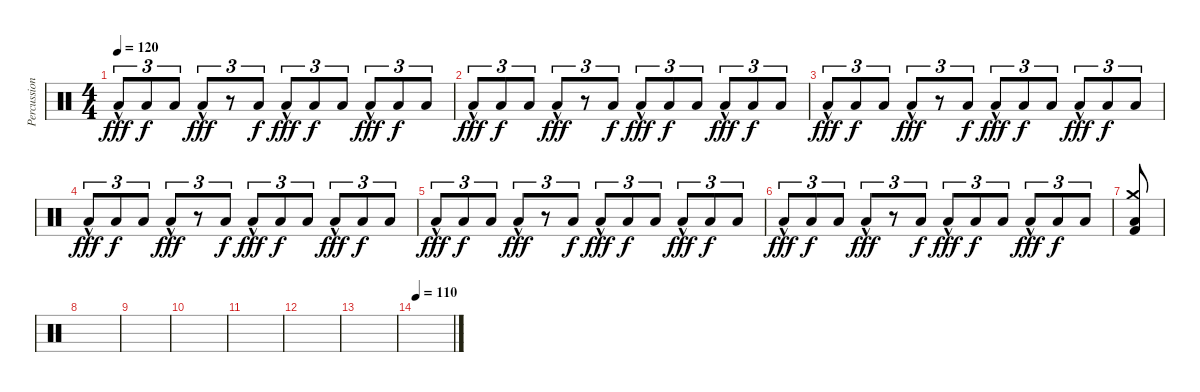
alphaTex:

\track ("Percussion" "Percussion") {instrument percussion}
\staff {score}
\articulation defaults
\ts (4 4)
\tempo 120
\clef neutral
\ks c "Low Floor Tom (hit)"{hac}.8{tu (3 2) dy fff} "Low Floor Tom (hit)".8{tu (3 2) dy f} "Low Floor Tom (hit)".8{tu (3 2)} "Low Floor Tom (hit)"{hac}.8{tu (3 2) dy fff}
r.8{tu (3 2)} "Low Floor Tom (hit)".8{tu (3 2) dy f} "Low Floor Tom (hit)"{hac}.8{tu (3 2) dy fff} "Low Floor Tom (hit)".8{tu (3 2) dy f} "Low Floor Tom (hit)".8{tu (3 2)} "Low Floor Tom (hit)"{hac}.8{tu (3 2) dy fff} "Low Floor Tom (hit)".8{tu (3 2) dy f} "Low Floor Tom (hit)".8{tu (3 2)} |
"Low Floor Tom (hit)"{hac}.8{tu (3 2) dy fff} "Low Floor Tom (hit)".8{tu (3 2) dy f} "Low Floor Tom (hit)".8{tu (3 2)} "Low Floor Tom (hit)"{hac}.8{tu (3 2) dy fff} r.8{tu (3 2)} "Low Floor Tom (hit)".8{tu (3 2) dy f} "Low Floor Tom (hit)"{hac}.8{tu (3 2) dy fff} "Low Floor Tom (hit)".8{tu (3 2) dy f} "Low Floor Tom (hit)".8{tu (3 2)} "Low Floor Tom (hit)"{hac}.8{tu (3 2) dy fff} "Low Floor Tom (hit)".8{tu (3 2) dy f} "Low Floor Tom (hit)".8{tu (3 2)} |
"Low Floor Tom (hit)"{hac}.8{tu (3 2) dy fff} "Low Floor Tom (hit)".8{tu (3 2) dy f} "Low Floor Tom (hit)".8{tu (3 2)} "Low Floor Tom (hit)"{hac}.8{tu (3 2) dy fff} r.8{tu (3 2)} "Low Floor Tom (hit)".8{tu (3 2) dy f} "Low Floor Tom (hit)"{hac}.8{tu (3 2) dy fff} "Low Floor Tom (hit)".8{tu (3 2) dy f} "Low Floor Tom (hit)".8{tu (3 2)} "Low Floor Tom (hit)"{hac}.8{tu (3 2) dy fff} "Low Floor Tom (hit)".8{tu (3 2) dy f} "Low Floor Tom (hit)".8{tu (3 2)} |
"Low Floor Tom (hit)"{hac}.8{tu (3 2) dy fff} "Low Floor Tom (hit)".8{tu (3 2) dy f} "Low Floor Tom (hit)".8{tu (3 2)} "Low Floor Tom (hit)"{hac}.8{tu (3 2) dy fff} r.8{tu (3 2)} "Low Floor Tom (hit)".8{tu (3 2) dy f} "Low Floor Tom (hit)"{hac}.8{tu (3 2) dy fff} "Low Floor Tom (hit)".8{tu (3 2) dy f} "Low Floor Tom (hit)".8{tu (3 2)} "Low Floor Tom (hit)"{hac}.8{tu (3 2) dy fff} "Low Floor Tom (hit)".8{tu (3 2) dy f} "Low Floor Tom (hit)".8{tu (3 2)} |
"Low Floor Tom (hit)"{hac}.8{tu (3 2) dy fff} "Low Floor Tom (hit)".8{tu (3 2) dy f} "Low Floor Tom (hit)".8{tu (3 2)} "Low Floor Tom (hit)"{hac}.8{tu (3 2) dy fff} r.8{tu (3 2)} "Low Floor Tom (hit)".8{tu (3 2) dy f} "Low Floor Tom (hit)"{hac}.8{tu (3 2) dy fff} "Low Floor Tom (hit)".8{tu (3 2) dy f} "Low Floor Tom (hit)".8{tu (3 2)} "Low Floor Tom (hit)"{hac}.8{tu (3 2) dy fff} "Low Floor Tom (hit)".8{tu (3 2) dy f} "Low Floor Tom (hit)".8{tu (3 2)} |
"Low Floor Tom (hit)"{hac}.8{tu (3 2) dy fff} "Low Floor Tom (hit)".8{tu (3 2) dy f} "Low Floor Tom (hit)".8{tu (3 2)} "Low Floor Tom (hit)"{hac}.8{tu (3 2) dy fff} r.8{tu (3 2)} "Low Floor Tom (hit)".8{tu (3 2) dy f} "Low Floor Tom (hit)"{hac}.8{tu (3 2) dy fff} "Low Floor Tom (hit)".8{tu (3 2) dy f} "Low Floor Tom (hit)".8{tu (3 2)} "Low Floor Tom (hit)"{hac}.8{tu (3 2) dy fff} "Low Floor Tom (hit)".8{tu (3 2) dy f} "Low Floor Tom (hit)".8{tu (3 2)} |
("Crash medium (hit)" "Low Floor Tom (hit)" "Kick (hit) 2").8 |
|
|
|
|
|
|
\tempo 110
